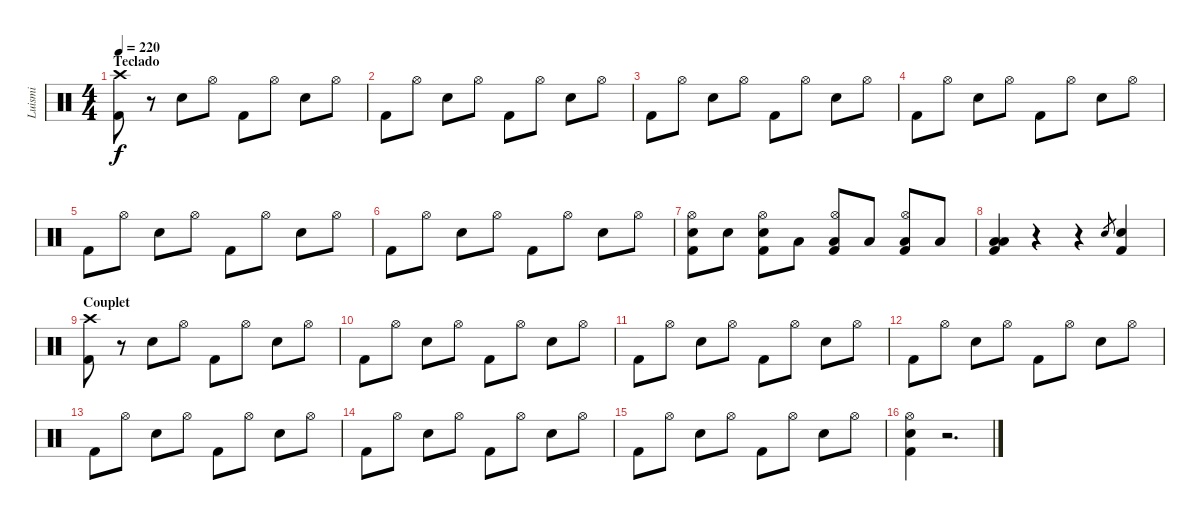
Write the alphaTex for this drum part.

\track ("Luismi" "Luismi") {instrument percussion}
\staff {score}
\articulation defaults
\ts (4 4)
\section ("" "Teclado")
\tempo 220
\clef neutral
\ks c
("Crash high (hit)" "Kick (hit) 2").8{dy f} r.8 "Snare (hit) 2".8 "Hi-Hat (open)".8 "Kick (hit) 2".8 "Hi-Hat (open)".8 "Snare (hit) 2".8 "Hi-Hat (open)".8 |
"Kick (hit) 2".8 "Hi-Hat (open)".8 "Snare (hit) 2".8 "Hi-Hat (open)".8 "Kick (hit) 2".8 "Hi-Hat (open)".8 "Snare (hit) 2".8 "Hi-Hat (open)".8 |
"Kick (hit) 2".8 "Hi-Hat (open)".8 "Snare (hit) 2".8 "Hi-Hat (open)".8 "Kick (hit) 2".8 "Hi-Hat (open)".8 "Snare (hit) 2".8 "Hi-Hat (open)".8 |
"Kick (hit) 2".8 "Hi-Hat (open)".8 "Snare (hit) 2".8 "Hi-Hat (open)".8 "Kick (hit) 2".8 "Hi-Hat (open)".8 "Snare (hit) 2".8 "Hi-Hat (open)".8 |
"Kick (hit) 2".8 "Hi-Hat (open)".8 "Snare (hit) 2".8 "Hi-Hat (open)".8 "Kick (hit) 2".8 "Hi-Hat (open)".8 "Snare (hit) 2".8 "Hi-Hat (open)".8 |
"Kick (hit) 2".8 "Hi-Hat (open)".8 "Snare (hit) 2".8 "Hi-Hat (open)".8 "Kick (hit) 2".8 "Hi-Hat (open)".8 "Snare (hit) 2".8 "Hi-Hat (open)".8 |
("Hi-Hat (open)" "Snare (hit) 2" "Kick (hit) 2").8 "Snare (hit) 2".8 ("Hi-Hat (open)" "Snare (hit) 2" "Kick (hit) 2").8 "Low Tom (hit)".8 ("Hi-Hat (open)" "Low Tom (hit)" "Kick (hit) 2").8 "Low Tom (hit)".8 ("Hi-Hat (open)" "Low Floor Tom (hit)" "Kick (hit) 2").8 "Low Floor Tom (hit)".8 |
("Low Tom (hit)" "Low Floor Tom (hit)" "Kick (hit) 2").4 r.4 r.4 "Snare (hit) 2".8{gr} ("Snare (hit) 2" "Kick (hit) 2").4 |
\section ("" "Couplet")
("Crash high (hit)" "Kick (hit) 2").8 r.8 "Snare (hit) 2".8 "Hi-Hat (open)".8 "Kick (hit) 2".8 "Hi-Hat (open)".8 "Snare (hit) 2".8 "Hi-Hat (open)".8 |
"Kick (hit) 2".8 "Hi-Hat (open)".8 "Snare (hit) 2".8 "Hi-Hat (open)".8 "Kick (hit) 2".8 "Hi-Hat (open)".8 "Snare (hit) 2".8 "Hi-Hat (open)".8 |
"Kick (hit) 2".8 "Hi-Hat (open)".8 "Snare (hit) 2".8 "Hi-Hat (open)".8 "Kick (hit) 2".8 "Hi-Hat (open)".8 "Snare (hit) 2".8 "Hi-Hat (open)".8 |
"Kick (hit) 2".8 "Hi-Hat (open)".8 "Snare (hit) 2".8 "Hi-Hat (open)".8 "Kick (hit) 2".8 "Hi-Hat (open)".8 "Snare (hit) 2".8 "Hi-Hat (open)".8 |
"Kick (hit) 2".8 "Hi-Hat (open)".8 "Snare (hit) 2".8 "Hi-Hat (open)".8 "Kick (hit) 2".8 "Hi-Hat (open)".8 "Snare (hit) 2".8 "Hi-Hat (open)".8 |
"Kick (hit) 2".8 "Hi-Hat (open)".8 "Snare (hit) 2".8 "Hi-Hat (open)".8 "Kick (hit) 2".8 "Hi-Hat (open)".8 "Snare (hit) 2".8 "Hi-Hat (open)".8 |
"Kick (hit) 2".8 "Hi-Hat (open)".8 "Snare (hit) 2".8 "Hi-Hat (open)".8 "Kick (hit) 2".8 "Hi-Hat (open)".8 "Snare (hit) 2".8 "Hi-Hat (open)".8 |
("Hi-Hat (open)" "Snare (hit) 2" "Kick (hit) 2").4 r.2{d}
